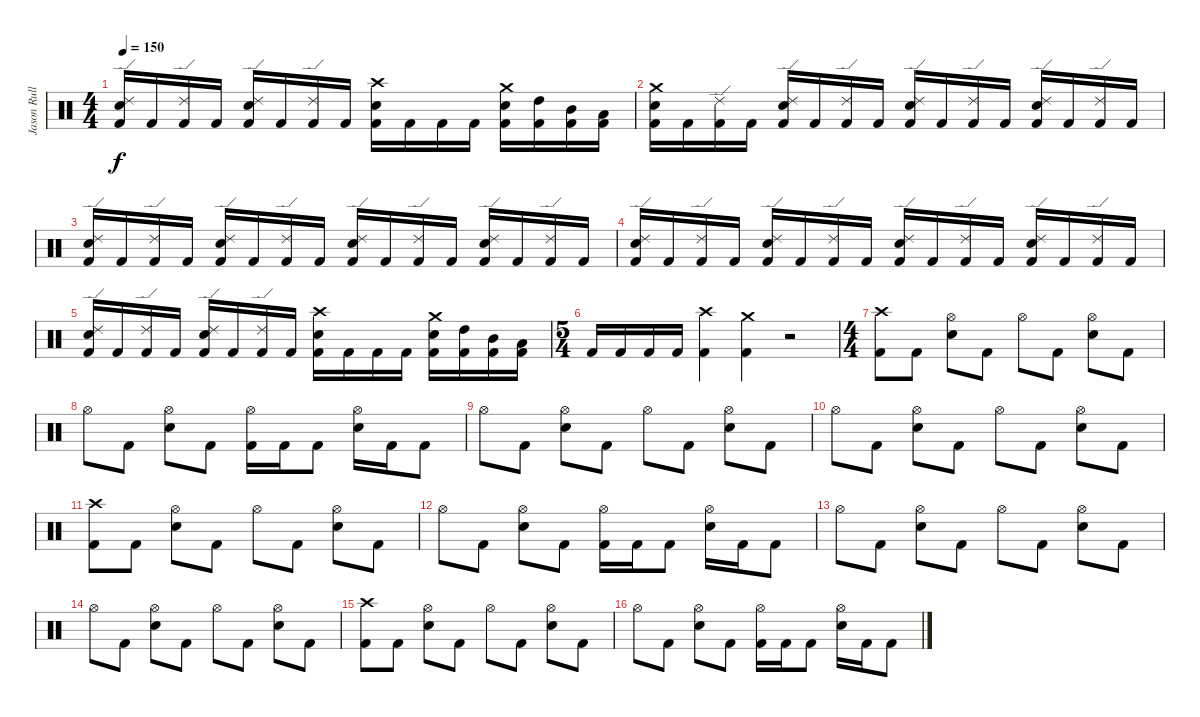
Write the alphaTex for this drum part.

\track ("Jason Rullo" "Jason Rull") {instrument percussion}
\staff {score}
\articulation defaults
\ts (4 4)
\tempo 150
\clef neutral
\ks c
("Ride (edge) 2" "Electric Snare (hit)" "Kick (hit) 2").16{dy f} "Kick (hit) 2".16 ("Ride (edge) 2" "Kick (hit) 2").16 "Kick (hit) 2".16 ("Ride (edge) 2" "Electric Snare (hit)" "Kick (hit) 2").16 "Kick (hit) 2".16 ("Ride (edge) 2" "Kick (hit) 2").16 "Kick (hit) 2".16 ("Crash high (hit)" "Electric Snare (hit)" "Kick (hit) 2").16 "Kick (hit) 2".16 "Kick (hit) 2".16 "Kick (hit) 2".16 ("Crash medium (hit)" "Electric Snare (hit)" "Kick (hit) 2").16 ("High Tom (hit)" "Kick (hit) 2").16 ("Mid Tom (hit)" "Kick (hit) 2").16 ("Low Tom (hit)" "Kick (hit) 2").16 |
("Crash medium (hit)" "Electric Snare (hit)" "Kick (hit) 2").16 "Kick (hit) 2".16 ("Ride (edge) 2" "Kick (hit) 2").16 "Kick (hit) 2".16 ("Ride (edge) 2" "Electric Snare (hit)" "Kick (hit) 2").16 "Kick (hit) 2".16 ("Ride (edge) 2" "Kick (hit) 2").16 "Kick (hit) 2".16 ("Ride (edge) 2" "Electric Snare (hit)" "Kick (hit) 2").16 "Kick (hit) 2".16 ("Ride (edge) 2" "Kick (hit) 2").16 "Kick (hit) 2".16 ("Ride (edge) 2" "Electric Snare (hit)" "Kick (hit) 2").16 "Kick (hit) 2".16 ("Ride (edge) 2" "Kick (hit) 2").16 "Kick (hit) 2".16 |
("Ride (edge) 2" "Electric Snare (hit)" "Kick (hit) 2").16 "Kick (hit) 2".16 ("Ride (edge) 2" "Kick (hit) 2").16 "Kick (hit) 2".16 ("Ride (edge) 2" "Electric Snare (hit)" "Kick (hit) 2").16 "Kick (hit) 2".16 ("Ride (edge) 2" "Kick (hit) 2").16 "Kick (hit) 2".16 ("Ride (edge) 2" "Electric Snare (hit)" "Kick (hit) 2").16 "Kick (hit) 2".16 ("Ride (edge) 2" "Kick (hit) 2").16 "Kick (hit) 2".16 ("Ride (edge) 2" "Electric Snare (hit)" "Kick (hit) 2").16 "Kick (hit) 2".16 ("Ride (edge) 2" "Kick (hit) 2").16 "Kick (hit) 2".16 |
("Ride (edge) 2" "Electric Snare (hit)" "Kick (hit) 2").16 "Kick (hit) 2".16 ("Ride (edge) 2" "Kick (hit) 2").16 "Kick (hit) 2".16 ("Ride (edge) 2" "Electric Snare (hit)" "Kick (hit) 2").16 "Kick (hit) 2".16 ("Ride (edge) 2" "Kick (hit) 2").16 "Kick (hit) 2".16 ("Ride (edge) 2" "Electric Snare (hit)" "Kick (hit) 2").16 "Kick (hit) 2".16 ("Ride (edge) 2" "Kick (hit) 2").16 "Kick (hit) 2".16 ("Ride (edge) 2" "Electric Snare (hit)" "Kick (hit) 2").16 "Kick (hit) 2".16 ("Ride (edge) 2" "Kick (hit) 2").16 "Kick (hit) 2".16 |
("Ride (edge) 2" "Electric Snare (hit)" "Kick (hit) 2").16 "Kick (hit) 2".16 ("Ride (edge) 2" "Kick (hit) 2").16 "Kick (hit) 2".16 ("Ride (edge) 2" "Electric Snare (hit)" "Kick (hit) 2").16 "Kick (hit) 2".16 ("Ride (edge) 2" "Kick (hit) 2").16 "Kick (hit) 2".16 ("Crash high (hit)" "Electric Snare (hit)" "Kick (hit) 2").16 "Kick (hit) 2".16 "Kick (hit) 2".16 "Kick (hit) 2".16 ("Crash medium (hit)" "Electric Snare (hit)" "Kick (hit) 2").16 ("High Tom (hit)" "Kick (hit) 2").16 ("Mid Tom (hit)" "Kick (hit) 2").16 ("Low Tom (hit)" "Kick (hit) 2").16 |
\ts (5 4)
"Kick (hit) 2".16 "Kick (hit) 2".16 "Kick (hit) 2".16 "Kick (hit) 2".16 ("Crash high (hit)" "Kick (hit) 2").4 ("Crash medium (hit)" "Kick (hit) 2").4 r.2 |
\ts (4 4)
("Crash high (hit)" "Kick (hit) 2").8 "Kick (hit) 2".8 ("Hi-Hat (open)" "Electric Snare (hit)").8 "Kick (hit) 2".8 "Hi-Hat (open)".8 "Kick (hit) 2".8 ("Hi-Hat (open)" "Electric Snare (hit)").8 "Kick (hit) 2".8 |
"Hi-Hat (open)".8 "Kick (hit) 2".8 ("Hi-Hat (open)" "Electric Snare (hit)").8 "Kick (hit) 2".8 ("Hi-Hat (open)" "Kick (hit) 2").16 "Kick (hit) 2".16 "Kick (hit) 2".8 ("Hi-Hat (open)" "Electric Snare (hit)").16 "Kick (hit) 2".16 "Kick (hit) 2".8 |
"Hi-Hat (open)".8 "Kick (hit) 2".8 ("Hi-Hat (open)" "Electric Snare (hit)").8 "Kick (hit) 2".8 "Hi-Hat (open)".8 "Kick (hit) 2".8 ("Hi-Hat (open)" "Electric Snare (hit)").8 "Kick (hit) 2".8 |
"Hi-Hat (open)".8 "Kick (hit) 2".8 ("Hi-Hat (open)" "Electric Snare (hit)").8 "Kick (hit) 2".8 "Hi-Hat (open)".8 "Kick (hit) 2".8 ("Hi-Hat (open)" "Electric Snare (hit)").8 "Kick (hit) 2".8 |
("Crash high (hit)" "Kick (hit) 2").8 "Kick (hit) 2".8 ("Hi-Hat (open)" "Electric Snare (hit)").8 "Kick (hit) 2".8 "Hi-Hat (open)".8 "Kick (hit) 2".8 ("Hi-Hat (open)" "Electric Snare (hit)").8 "Kick (hit) 2".8 |
"Hi-Hat (open)".8 "Kick (hit) 2".8 ("Hi-Hat (open)" "Electric Snare (hit)").8 "Kick (hit) 2".8 ("Hi-Hat (open)" "Kick (hit) 2").16 "Kick (hit) 2".16 "Kick (hit) 2".8 ("Hi-Hat (open)" "Electric Snare (hit)").16 "Kick (hit) 2".16 "Kick (hit) 2".8 |
"Hi-Hat (open)".8 "Kick (hit) 2".8 ("Hi-Hat (open)" "Electric Snare (hit)").8 "Kick (hit) 2".8 "Hi-Hat (open)".8 "Kick (hit) 2".8 ("Hi-Hat (open)" "Electric Snare (hit)").8 "Kick (hit) 2".8 |
"Hi-Hat (open)".8 "Kick (hit) 2".8 ("Hi-Hat (open)" "Electric Snare (hit)").8 "Kick (hit) 2".8 "Hi-Hat (open)".8 "Kick (hit) 2".8 ("Hi-Hat (open)" "Electric Snare (hit)").8 "Kick (hit) 2".8 |
("Crash high (hit)" "Kick (hit) 2").8 "Kick (hit) 2".8 ("Hi-Hat (open)" "Electric Snare (hit)").8 "Kick (hit) 2".8 "Hi-Hat (open)".8 "Kick (hit) 2".8 ("Hi-Hat (open)" "Electric Snare (hit)").8 "Kick (hit) 2".8 |
"Hi-Hat (open)".8 "Kick (hit) 2".8 ("Hi-Hat (open)" "Electric Snare (hit)").8 "Kick (hit) 2".8 ("Hi-Hat (open)" "Kick (hit) 2").16 "Kick (hit) 2".16 "Kick (hit) 2".8 ("Hi-Hat (open)" "Electric Snare (hit)").16 "Kick (hit) 2".16 "Kick (hit) 2".8
